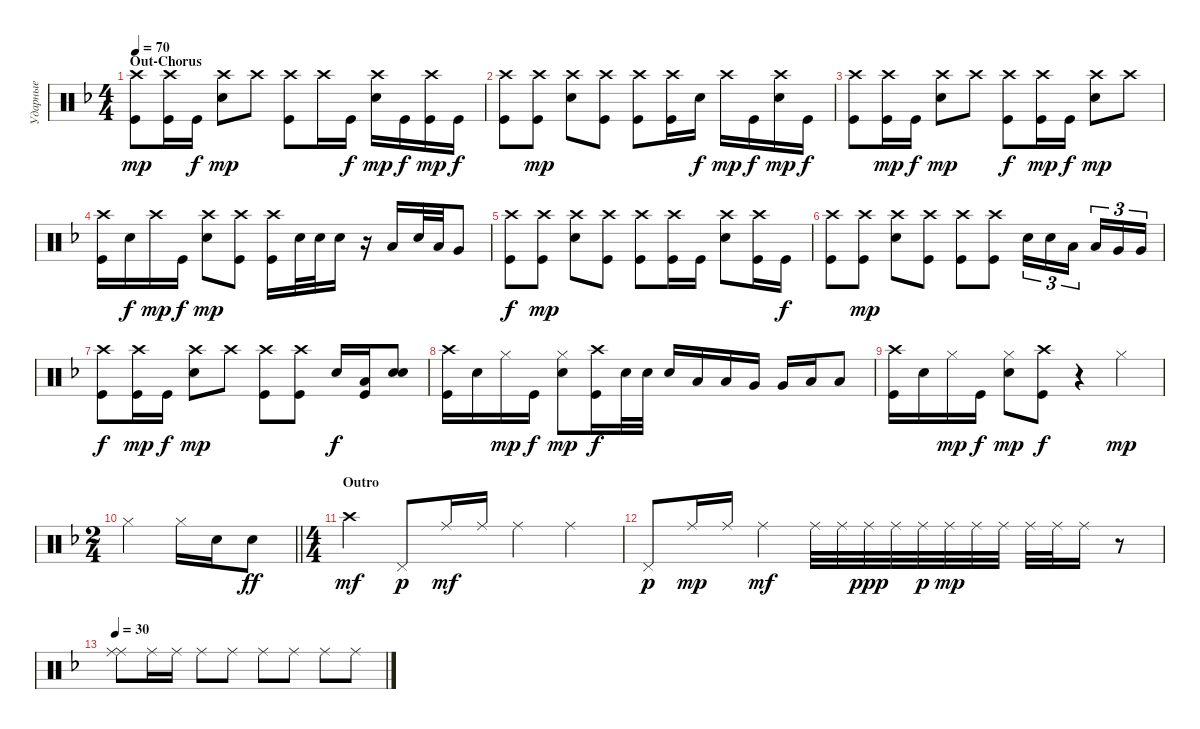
\track ("Ударные" "Ударные") {instrument percussion}
\staff {score}
\articulation defaults
\ts (4 4)
\section ("" "Out-Chorus")
\tempo 70
\clef neutral
\ks dminor
("Kick (hit)" "Crash high (hit)").8{dy mp} ("Kick (hit)" "Crash high (hit)").16 "Kick (hit)".16{dy f} ("Snare (hit) 2" "Crash high (hit)").8{dy mp} "Crash high (hit)".8 ("Kick (hit)" "Crash high (hit)").8 "Crash high (hit)".16 "Kick (hit)".16{dy f} ("Snare (hit) 2" "Crash high (hit)").16{dy mp} "Kick (hit)".16{dy f} ("Kick (hit)" "Crash high (hit)").16{dy mp} "Kick (hit)".16{dy f} |
("Crash high (hit)" "Kick (hit)").8 ("Kick (hit)" "Crash high (hit)").8{dy mp} ("Snare (hit) 2" "Crash high (hit)").8 ("Kick (hit)" "Crash high (hit)").8 ("Kick (hit)" "Crash high (hit)").8 ("Kick (hit)" "Crash high (hit)").16 "Snare (hit) 2".16{dy f} "Crash high (hit)".16{dy mp} "Kick (hit)".16{dy f} ("Snare (hit) 2" "Crash high (hit)").16{dy mp} "Kick (hit)".16{dy f} |
("Crash high (hit)" "Kick (hit)").8 ("Kick (hit)" "Crash high (hit)").16{dy mp} "Kick (hit)".16{dy f} ("Snare (hit) 2" "Crash high (hit)").8{dy mp} "Crash high (hit)".8 ("Crash high (hit)" "Kick (hit)").8{dy f} ("Kick (hit)" "Crash high (hit)").16{dy mp} "Kick (hit)".16{dy f} ("Snare (hit) 2" "Crash high (hit)").8{dy mp} "Crash high (hit)".8 |
("Kick (hit)" "Crash high (hit)").16 "Snare (hit) 2".16{dy f} "Crash high (hit)".16{dy mp} "Kick (hit)".16{dy f} ("Snare (hit) 2" "Crash high (hit)").8{dy mp} ("Kick (hit)" "Crash high (hit)").8 ("Kick (hit)" "Crash high (hit)").16 "Snare (hit) 2".32 "Snare (hit) 2".32 "Snare (hit) 2".16 r.16 "Low Tom (hit)".16 "Snare (hit) 2".32 "Low Tom (hit)".32 "Very Low Tom (hit)".8 |
("Kick (hit)" "Crash high (hit)").8{dy f} ("Kick (hit)" "Crash high (hit)").8{dy mp} ("Snare (hit) 2" "Crash high (hit)").8 ("Kick (hit)" "Crash high (hit)").8 ("Kick (hit)" "Crash high (hit)").8 ("Kick (hit)" "Crash high (hit)").16 "Kick (hit)".16 ("Snare (hit) 2" "Crash high (hit)").8 ("Kick (hit)" "Crash high (hit)").16 "Kick (hit)".16{dy f} |
("Crash high (hit)" "Kick (hit)").8 ("Kick (hit)" "Crash high (hit)").8{dy mp} ("Snare (hit) 2" "Crash high (hit)").8 ("Kick (hit)" "Crash high (hit)").8 ("Kick (hit)" "Crash high (hit)").8 ("Kick (hit)" "Crash high (hit)").8 "Snare (hit) 2".16{tu (3 2)} "Snare (hit) 2".16{tu (3 2)} "Low Tom (hit)".16{tu (3 2) beam splitsecondary} "Low Tom (hit)".16{tu (3 2)} "Very Low Tom (hit)".16{tu (3 2)} "Very Low Tom (hit)".16{tu (3 2)} |
("Crash high (hit)" "Kick (hit)").8{dy f} ("Kick (hit)" "Crash high (hit)").16{dy mp} "Kick (hit)".16{dy f} ("Snare (hit) 2" "Crash high (hit)").8{dy mp} "Crash high (hit)".8 ("Kick (hit)" "Crash high (hit)").8 ("Kick (hit)" "Crash high (hit)").8 "Snare (hit) 2".16{dy f} ("Kick (hit)" "Low Floor Tom (hit)").16{bd 60} ("Snare (hit) 2" "Snare (hit) 2").8{bd 60} |
("Kick (hit)" "Crash high (hit)").16 "Snare (hit) 2".16 "Hi-Hat (closed)".16{dy mp} "Kick (hit)".16{dy f} ("Snare (hit) 2" "Hi-Hat (closed)").8{dy mp} ("Kick (hit)" "Crash high (hit)").16{dy f} "Snare (hit) 2".32 "Snare (hit) 2".32 "Snare (hit) 2".16 "Low Tom (hit)".16 "Low Tom (hit)".16 "Very Low Tom (hit)".16 "Very Low Tom (hit)".16 "Low Floor Tom (hit)".16 "Low Floor Tom (hit)".8 |
("Kick (hit)" "Crash high (hit)").16 "Snare (hit) 2".16 "Hi-Hat (closed)".16{dy mp} "Kick (hit)".16{dy f} ("Snare (hit) 2" "Hi-Hat (closed)").8{dy mp} ("Kick (hit)" "Crash high (hit)").8{dy f} r.4 "Hi-Hat (closed)".4{dy mp} |
\ts (2 4)
\barLineRight lightlight "Hi-Hat (closed)".4 "Hi-Hat (closed)".16 "Snare (hit) 2".16 "Snare (hit) 2".8{dy ff}
|
\ts (4 4)
\section ("" "Outro")
"Crash high (hit)".4{dy mf} "Pedal Hi-Hat (hit)".8{dy p} "Ride (middle)".16{dy mf} "Ride (middle)".16 "Ride (middle)".4 "Ride (middle)".4 |
"Pedal Hi-Hat (hit)".8{dy p} "Ride (middle)".16{dy mp} "Ride (middle)".16 "Ride (middle)".4{dy mf} "Ride (middle)".32 "Ride (middle)".32 "Ride (middle)".32{dy ppp} "Ride (middle)".32 "Ride (middle)".32{dy p} "Ride (middle)".32{dy mp} "Ride (middle)".32 "Ride (middle)".32 "Ride (middle)".32 "Ride (middle)".32 "Ride (middle)".16 r.8 |
\tempo 30
("Ride (middle)" "Ride (middle)").8{bd 480} "Ride (middle)".16 "Ride (middle)".16 "Ride (middle)".8 "Ride (middle)".8 "Ride (middle)".8 "Ride (middle)".8 "Ride (middle)".8 "Ride (middle)".8
